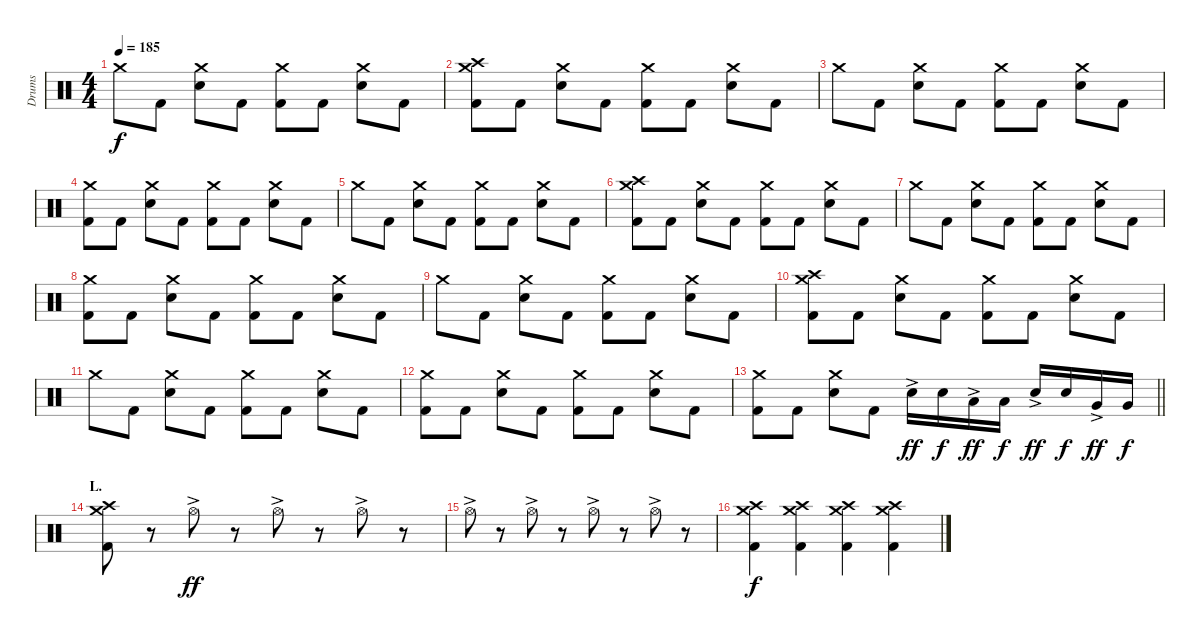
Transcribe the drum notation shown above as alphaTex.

\track ("Drums" "Drums") {instrument percussion}
\staff {score}
\articulation defaults
\ts (4 4)
\tempo 185
\clef neutral
\ks c "Crash medium (hit)".8{dy f} "Kick (hit) 2".8
("Crash medium (hit)" "Electric Snare (hit)").8 "Kick (hit) 2".8 ("Crash medium (hit)" "Kick (hit) 2").8 "Kick (hit) 2".8 ("Crash medium (hit)" "Electric Snare (hit)").8 "Kick (hit) 2".8 |
("Crash medium (hit)" "Crash high (hit)" "Kick (hit) 2").8 "Kick (hit) 2".8 ("Crash medium (hit)" "Electric Snare (hit)").8 "Kick (hit) 2".8 ("Crash medium (hit)" "Kick (hit) 2").8 "Kick (hit) 2".8 ("Crash medium (hit)" "Electric Snare (hit)").8 "Kick (hit) 2".8 |
"Crash medium (hit)".8 "Kick (hit) 2".8 ("Crash medium (hit)" "Electric Snare (hit)").8 "Kick (hit) 2".8 ("Crash medium (hit)" "Kick (hit) 2").8 "Kick (hit) 2".8 ("Crash medium (hit)" "Electric Snare (hit)").8 "Kick (hit) 2".8 |
("Crash medium (hit)" "Kick (hit) 2").8 "Kick (hit) 2".8 ("Crash medium (hit)" "Electric Snare (hit)").8 "Kick (hit) 2".8 ("Crash medium (hit)" "Kick (hit) 2").8 "Kick (hit) 2".8 ("Crash medium (hit)" "Electric Snare (hit)").8 "Kick (hit) 2".8 |
"Crash medium (hit)".8 "Kick (hit) 2".8 ("Crash medium (hit)" "Electric Snare (hit)").8 "Kick (hit) 2".8 ("Crash medium (hit)" "Kick (hit) 2").8 "Kick (hit) 2".8 ("Crash medium (hit)" "Electric Snare (hit)").8 "Kick (hit) 2".8 |
("Crash medium (hit)" "Crash high (hit)" "Kick (hit) 2").8 "Kick (hit) 2".8 ("Crash medium (hit)" "Electric Snare (hit)").8 "Kick (hit) 2".8 ("Crash medium (hit)" "Kick (hit) 2").8 "Kick (hit) 2".8 ("Crash medium (hit)" "Electric Snare (hit)").8 "Kick (hit) 2".8 |
"Crash medium (hit)".8 "Kick (hit) 2".8 ("Crash medium (hit)" "Electric Snare (hit)").8 "Kick (hit) 2".8 ("Crash medium (hit)" "Kick (hit) 2").8 "Kick (hit) 2".8 ("Crash medium (hit)" "Electric Snare (hit)").8 "Kick (hit) 2".8 |
("Crash medium (hit)" "Kick (hit) 2").8 "Kick (hit) 2".8 ("Crash medium (hit)" "Electric Snare (hit)").8 "Kick (hit) 2".8 ("Crash medium (hit)" "Kick (hit) 2").8 "Kick (hit) 2".8 ("Crash medium (hit)" "Electric Snare (hit)").8 "Kick (hit) 2".8 |
"Crash medium (hit)".8 "Kick (hit) 2".8 ("Crash medium (hit)" "Electric Snare (hit)").8 "Kick (hit) 2".8 ("Crash medium (hit)" "Kick (hit) 2").8 "Kick (hit) 2".8 ("Crash medium (hit)" "Electric Snare (hit)").8 "Kick (hit) 2".8 |
("Crash medium (hit)" "Crash high (hit)" "Kick (hit) 2").8 "Kick (hit) 2".8 ("Crash medium (hit)" "Electric Snare (hit)").8 "Kick (hit) 2".8 ("Crash medium (hit)" "Kick (hit) 2").8 "Kick (hit) 2".8 ("Crash medium (hit)" "Electric Snare (hit)").8 "Kick (hit) 2".8 |
"Crash medium (hit)".8 "Kick (hit) 2".8 ("Crash medium (hit)" "Electric Snare (hit)").8 "Kick (hit) 2".8 ("Crash medium (hit)" "Kick (hit) 2").8 "Kick (hit) 2".8 ("Crash medium (hit)" "Electric Snare (hit)").8 "Kick (hit) 2".8 |
("Crash medium (hit)" "Kick (hit) 2").8 "Kick (hit) 2".8 ("Crash medium (hit)" "Electric Snare (hit)").8 "Kick (hit) 2".8 ("Crash medium (hit)" "Kick (hit) 2").8 "Kick (hit) 2".8 ("Crash medium (hit)" "Electric Snare (hit)").8 "Kick (hit) 2".8 |
\barLineRight lightlight
("Crash medium (hit)" "Kick (hit) 2").8 "Kick (hit) 2".8 ("Crash medium (hit)" "Electric Snare (hit)").8 "Kick (hit) 2".8 "Electric Snare (hit)"{ac}.16{dy ff} "Electric Snare (hit)".16{dy f} "Low Tom (hit)"{ac}.16{dy ff} "Low Tom (hit)".16{dy f} "Electric Snare (hit)"{ac}.16{dy ff} "Electric Snare (hit)".16{dy f} "Very Low Tom (hit)"{ac}.16{dy ff} "Very Low Tom (hit)".16{dy f} |
\section ("" "L.")
("Crash medium (hit)" "Crash high (hit)" "Kick (hit) 2").8 r.8 "Hi-Hat (open)"{ac}.8{dy ff} r.8 "Hi-Hat (open)"{ac}.8 r.8 "Hi-Hat (open)"{ac}.8 r.8 |
"Hi-Hat (open)"{ac}.8 r.8 "Hi-Hat (open)"{ac}.8 r.8 "Hi-Hat (open)"{ac}.8 r.8 "Hi-Hat (open)"{ac}.8 r.8 |
("Crash medium (hit)" "Crash high (hit)" "Kick (hit) 2").4{dy f} ("Crash medium (hit)" "Crash high (hit)" "Kick (hit) 2").4 ("Crash medium (hit)" "Crash high (hit)" "Kick (hit) 2").4 ("Crash medium (hit)" "Crash high (hit)" "Kick (hit) 2").4
